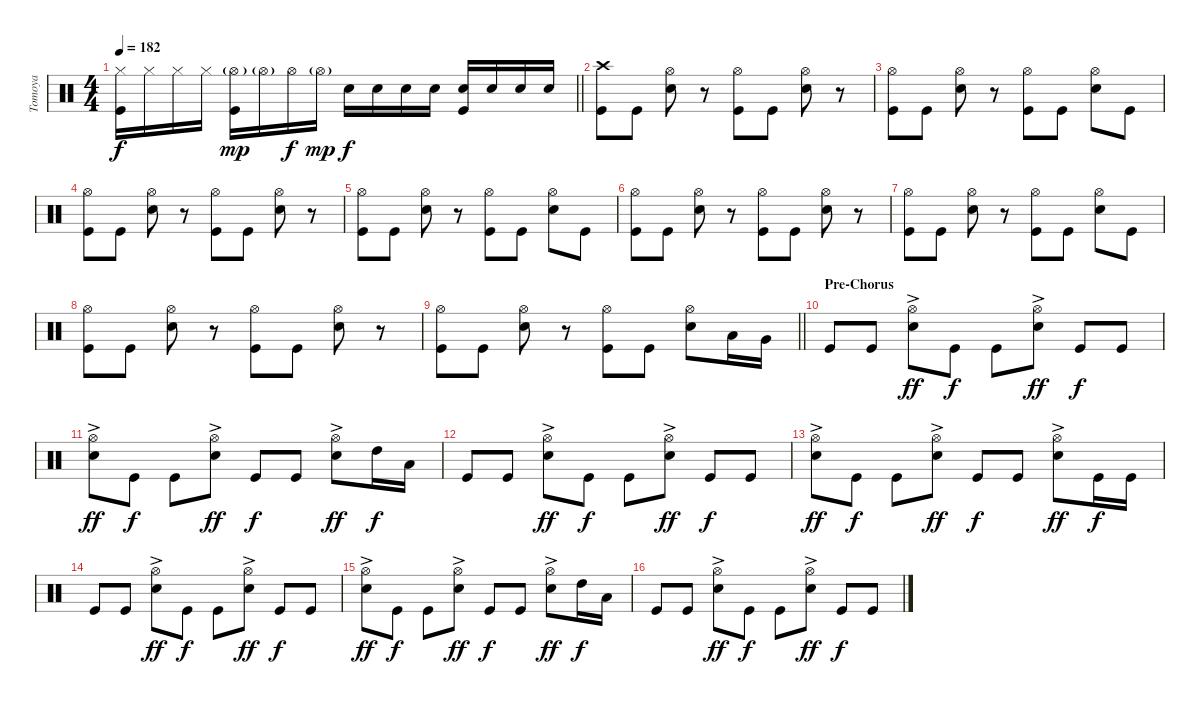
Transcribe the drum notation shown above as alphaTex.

\track ("Tomoya" "Tomoya") {instrument percussion}
\staff {score}
\articulation defaults
\ts (4 4)
\tempo 182
\clef neutral
\barLineRight lightlight
\ks c
("Hi-Hat (closed)" "Kick (hit)").16{dy f} "Hi-Hat (closed)".16 "Hi-Hat (closed)".16 "Hi-Hat (closed)".16 ("Hi-Hat (open)"{g} "Kick (hit)").16{dy mp} "Hi-Hat (open)"{g}.16 "Hi-Hat (open)".16{dy f} "Hi-Hat (open)"{g}.16{dy mp} "Snare (hit) 2".16{dy f} "Snare (hit) 2".16 "Snare (hit) 2".16 "Snare (hit) 2".16 ("Snare (hit) 2" "Kick (hit)").16 "Snare (hit) 2".16 "Snare (hit) 2".16 "Snare (hit) 2".16 |
\section ("" "")
("Crash high (hit)" "Kick (hit)").8 "Kick (hit)".8 ("Hi-Hat (open)" "Snare (hit) 2").8 r.8 ("Hi-Hat (open)" "Kick (hit)").8 "Kick (hit)".8 ("Hi-Hat (open)" "Snare (hit) 2").8 r.8 |
("Hi-Hat (open)" "Kick (hit)").8 "Kick (hit)".8 ("Hi-Hat (open)" "Snare (hit) 2").8 r.8 ("Hi-Hat (open)" "Kick (hit)").8 "Kick (hit)".8 ("Hi-Hat (open)" "Snare (hit) 2").8 "Kick (hit)".8 |
("Hi-Hat (open)" "Kick (hit)").8 "Kick (hit)".8 ("Hi-Hat (open)" "Snare (hit) 2").8 r.8 ("Hi-Hat (open)" "Kick (hit)").8 "Kick (hit)".8 ("Hi-Hat (open)" "Snare (hit) 2").8 r.8 |
("Hi-Hat (open)" "Kick (hit)").8 "Kick (hit)".8 ("Hi-Hat (open)" "Snare (hit) 2").8 r.8 ("Hi-Hat (open)" "Kick (hit)").8 "Kick (hit)".8 ("Hi-Hat (open)" "Snare (hit) 2").8 "Kick (hit)".8 |
("Hi-Hat (open)" "Kick (hit)").8 "Kick (hit)".8 ("Hi-Hat (open)" "Snare (hit) 2").8 r.8 ("Hi-Hat (open)" "Kick (hit)").8 "Kick (hit)".8 ("Hi-Hat (open)" "Snare (hit) 2").8 r.8 |
("Hi-Hat (open)" "Kick (hit)").8 "Kick (hit)".8 ("Hi-Hat (open)" "Snare (hit) 2").8 r.8 ("Hi-Hat (open)" "Kick (hit)").8 "Kick (hit)".8 ("Hi-Hat (open)" "Snare (hit) 2").8 "Kick (hit)".8 |
("Hi-Hat (open)" "Kick (hit)").8 "Kick (hit)".8 ("Hi-Hat (open)" "Snare (hit) 2").8 r.8 ("Hi-Hat (open)" "Kick (hit)").8 "Kick (hit)".8 ("Hi-Hat (open)" "Snare (hit) 2").8 r.8 |
\barLineRight lightlight
("Hi-Hat (open)" "Kick (hit)").8 "Kick (hit)".8 ("Hi-Hat (open)" "Snare (hit) 2").8 r.8 ("Hi-Hat (open)" "Kick (hit)").8 "Kick (hit)".8 ("Hi-Hat (open)" "Snare (hit) 2").8 "Low Tom (hit)".16 "Very Low Tom (hit)".16 |
\section ("" "Pre-Chorus")
"Kick (hit)".8 "Kick (hit)".8 ("Hi-Hat (open)"{ac} "Snare (hit) 2").8{dy ff} "Kick (hit)".8{dy f} "Kick (hit)".8 ("Hi-Hat (open)"{ac} "Snare (hit) 2").8{dy ff} "Kick (hit)".8{dy f} "Kick (hit)".8 |
("Hi-Hat (open)"{ac} "Snare (hit) 2").8{dy ff} "Kick (hit)".8{dy f} "Kick (hit)".8 ("Hi-Hat (open)"{ac} "Snare (hit) 2").8{dy ff} "Kick (hit)".8{dy f} "Kick (hit)".8 ("Hi-Hat (open)"{ac} "Snare (hit) 2").8{dy ff} "High Tom (hit)".16{dy f} "Low Tom (hit)".16 |
"Kick (hit)".8 "Kick (hit)".8 ("Hi-Hat (open)"{ac} "Snare (hit) 2").8{dy ff} "Kick (hit)".8{dy f} "Kick (hit)".8 ("Hi-Hat (open)"{ac} "Snare (hit) 2").8{dy ff} "Kick (hit)".8{dy f} "Kick (hit)".8 |
("Hi-Hat (open)"{ac} "Snare (hit) 2").8{dy ff} "Kick (hit)".8{dy f} "Kick (hit)".8 ("Hi-Hat (open)"{ac} "Snare (hit) 2").8{dy ff} "Kick (hit)".8{dy f} "Kick (hit)".8 ("Hi-Hat (open)"{ac} "Snare (hit) 2").8{dy ff} "Kick (hit)".16{dy f} "Kick (hit)".16 |
"Kick (hit)".8 "Kick (hit)".8 ("Hi-Hat (open)"{ac} "Snare (hit) 2").8{dy ff} "Kick (hit)".8{dy f} "Kick (hit)".8 ("Hi-Hat (open)"{ac} "Snare (hit) 2").8{dy ff} "Kick (hit)".8{dy f} "Kick (hit)".8 |
("Hi-Hat (open)"{ac} "Snare (hit) 2").8{dy ff} "Kick (hit)".8{dy f} "Kick (hit)".8 ("Hi-Hat (open)"{ac} "Snare (hit) 2").8{dy ff} "Kick (hit)".8{dy f} "Kick (hit)".8 ("Hi-Hat (open)"{ac} "Snare (hit) 2").8{dy ff} "High Tom (hit)".16{dy f} "Low Tom (hit)".16 |
"Kick (hit)".8 "Kick (hit)".8 ("Hi-Hat (open)"{ac} "Snare (hit) 2").8{dy ff} "Kick (hit)".8{dy f} "Kick (hit)".8 ("Hi-Hat (open)"{ac} "Snare (hit) 2").8{dy ff} "Kick (hit)".8{dy f} "Kick (hit)".8
